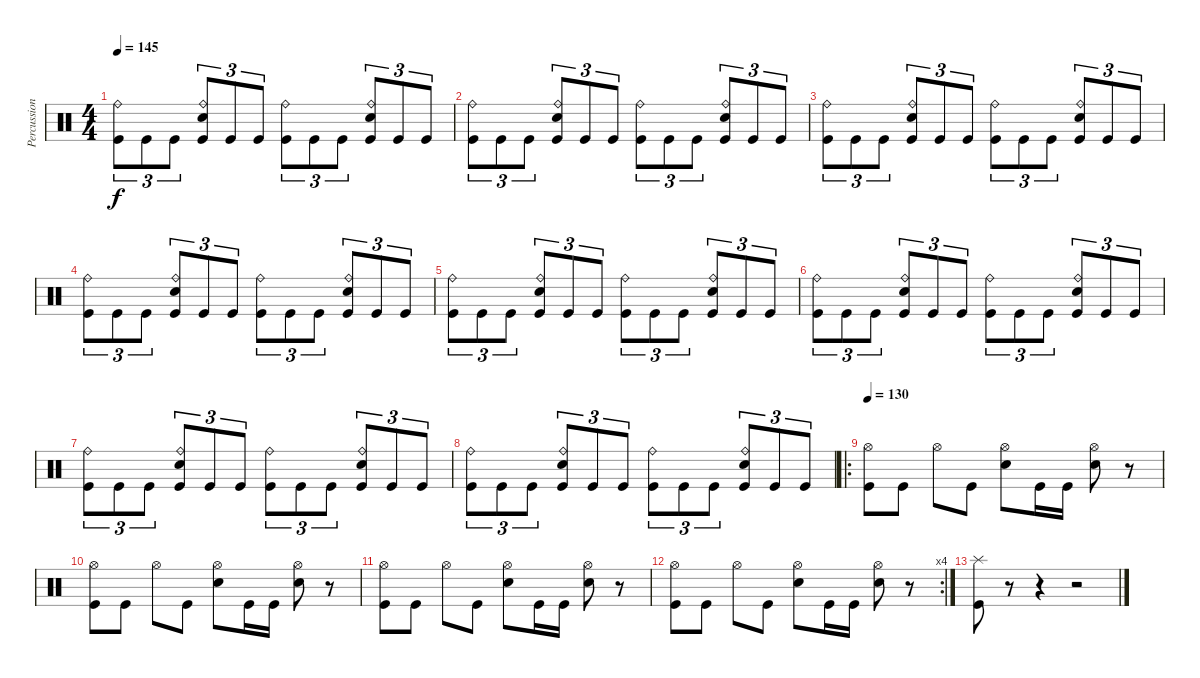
\track ("Percussions" "Percussion") {instrument percussion}
\staff {score}
\articulation defaults
\ts (4 4)
\tempo 145
\clef neutral
\ks c
("Kick (hit)" "Ride (bell)").8{tu (3 2) dy f} "Kick (hit)".8{tu (3 2)} "Kick (hit)".8{tu (3 2)} ("Kick (hit)" "Electric Snare (hit)" "Ride (bell)").8{tu (3 2)} "Kick (hit)".8{tu (3 2)} "Kick (hit)".8{tu (3 2)} ("Kick (hit)" "Ride (bell)").8{tu (3 2)} "Kick (hit)".8{tu (3 2)} "Kick (hit)".8{tu (3 2)} ("Kick (hit)" "Electric Snare (hit)" "Ride (bell)").8{tu (3 2)} "Kick (hit)".8{tu (3 2)} "Kick (hit)".8{tu (3 2)} |
("Kick (hit)" "Ride (bell)").8{tu (3 2)} "Kick (hit)".8{tu (3 2)} "Kick (hit)".8{tu (3 2)} ("Kick (hit)" "Electric Snare (hit)" "Ride (bell)").8{tu (3 2)} "Kick (hit)".8{tu (3 2)} "Kick (hit)".8{tu (3 2)} ("Kick (hit)" "Ride (bell)").8{tu (3 2)} "Kick (hit)".8{tu (3 2)} "Kick (hit)".8{tu (3 2)} ("Kick (hit)" "Electric Snare (hit)" "Ride (bell)").8{tu (3 2)} "Kick (hit)".8{tu (3 2)} "Kick (hit)".8{tu (3 2)} |
("Kick (hit)" "Ride (bell)").8{tu (3 2)} "Kick (hit)".8{tu (3 2)} "Kick (hit)".8{tu (3 2)} ("Kick (hit)" "Electric Snare (hit)" "Ride (bell)").8{tu (3 2)} "Kick (hit)".8{tu (3 2)} "Kick (hit)".8{tu (3 2)} ("Kick (hit)" "Ride (bell)").8{tu (3 2)} "Kick (hit)".8{tu (3 2)} "Kick (hit)".8{tu (3 2)} ("Kick (hit)" "Electric Snare (hit)" "Ride (bell)").8{tu (3 2)} "Kick (hit)".8{tu (3 2)} "Kick (hit)".8{tu (3 2)} |
("Kick (hit)" "Ride (bell)").8{tu (3 2)} "Kick (hit)".8{tu (3 2)} "Kick (hit)".8{tu (3 2)} ("Kick (hit)" "Electric Snare (hit)" "Ride (bell)").8{tu (3 2)} "Kick (hit)".8{tu (3 2)} "Kick (hit)".8{tu (3 2)} ("Kick (hit)" "Ride (bell)").8{tu (3 2)} "Kick (hit)".8{tu (3 2)} "Kick (hit)".8{tu (3 2)} ("Kick (hit)" "Electric Snare (hit)" "Ride (bell)").8{tu (3 2)} "Kick (hit)".8{tu (3 2)} "Kick (hit)".8{tu (3 2)} |
("Kick (hit)" "Ride (bell)").8{tu (3 2)} "Kick (hit)".8{tu (3 2)} "Kick (hit)".8{tu (3 2)} ("Kick (hit)" "Electric Snare (hit)" "Ride (bell)").8{tu (3 2)} "Kick (hit)".8{tu (3 2)} "Kick (hit)".8{tu (3 2)} ("Kick (hit)" "Ride (bell)").8{tu (3 2)} "Kick (hit)".8{tu (3 2)} "Kick (hit)".8{tu (3 2)} ("Kick (hit)" "Electric Snare (hit)" "Ride (bell)").8{tu (3 2)} "Kick (hit)".8{tu (3 2)} "Kick (hit)".8{tu (3 2)} |
("Kick (hit)" "Ride (bell)").8{tu (3 2)} "Kick (hit)".8{tu (3 2)} "Kick (hit)".8{tu (3 2)} ("Kick (hit)" "Electric Snare (hit)" "Ride (bell)").8{tu (3 2)} "Kick (hit)".8{tu (3 2)} "Kick (hit)".8{tu (3 2)} ("Kick (hit)" "Ride (bell)").8{tu (3 2)} "Kick (hit)".8{tu (3 2)} "Kick (hit)".8{tu (3 2)} ("Kick (hit)" "Electric Snare (hit)" "Ride (bell)").8{tu (3 2)} "Kick (hit)".8{tu (3 2)} "Kick (hit)".8{tu (3 2)} |
("Kick (hit)" "Ride (bell)").8{tu (3 2)} "Kick (hit)".8{tu (3 2)} "Kick (hit)".8{tu (3 2)} ("Kick (hit)" "Electric Snare (hit)" "Ride (bell)").8{tu (3 2)} "Kick (hit)".8{tu (3 2)} "Kick (hit)".8{tu (3 2)} ("Kick (hit)" "Ride (bell)").8{tu (3 2)} "Kick (hit)".8{tu (3 2)} "Kick (hit)".8{tu (3 2)} ("Kick (hit)" "Electric Snare (hit)" "Ride (bell)").8{tu (3 2)} "Kick (hit)".8{tu (3 2)} "Kick (hit)".8{tu (3 2)} |
("Kick (hit)" "Ride (bell)").8{tu (3 2)} "Kick (hit)".8{tu (3 2)} "Kick (hit)".8{tu (3 2)} ("Kick (hit)" "Electric Snare (hit)" "Ride (bell)").8{tu (3 2)} "Kick (hit)".8{tu (3 2)} "Kick (hit)".8{tu (3 2)} ("Kick (hit)" "Ride (bell)").8{tu (3 2)} "Kick (hit)".8{tu (3 2)} "Kick (hit)".8{tu (3 2)} ("Kick (hit)" "Electric Snare (hit)" "Ride (bell)").8{tu (3 2)} "Kick (hit)".8{tu (3 2)} "Kick (hit)".8{tu (3 2)} |
\ro
\tempo 130
("Kick (hit)" "Hi-Hat (open)").8 "Kick (hit)".8 "Hi-Hat (open)".8 "Kick (hit)".8 ("Electric Snare (hit)" "Hi-Hat (open)").8 "Kick (hit)".16 "Kick (hit)".16 ("Electric Snare (hit)" "Hi-Hat (open)").8 r.8 |
("Kick (hit)" "Hi-Hat (open)").8 "Kick (hit)".8 "Hi-Hat (open)".8 "Kick (hit)".8 ("Electric Snare (hit)" "Hi-Hat (open)").8 "Kick (hit)".16 "Kick (hit)".16 ("Electric Snare (hit)" "Hi-Hat (open)").8 r.8 |
("Kick (hit)" "Hi-Hat (open)").8 "Kick (hit)".8 "Hi-Hat (open)".8 "Kick (hit)".8 ("Electric Snare (hit)" "Hi-Hat (open)").8 "Kick (hit)".16 "Kick (hit)".16 ("Electric Snare (hit)" "Hi-Hat (open)").8 r.8 |
\rc 4
("Kick (hit)" "Hi-Hat (open)").8 "Kick (hit)".8 "Hi-Hat (open)".8 "Kick (hit)".8 ("Electric Snare (hit)" "Hi-Hat (open)").8 "Kick (hit)".16 "Kick (hit)".16 ("Electric Snare (hit)" "Hi-Hat (open)").8 r.8 |
("Kick (hit)" "Splash (hit)").8 r.8 r.4 r.2
